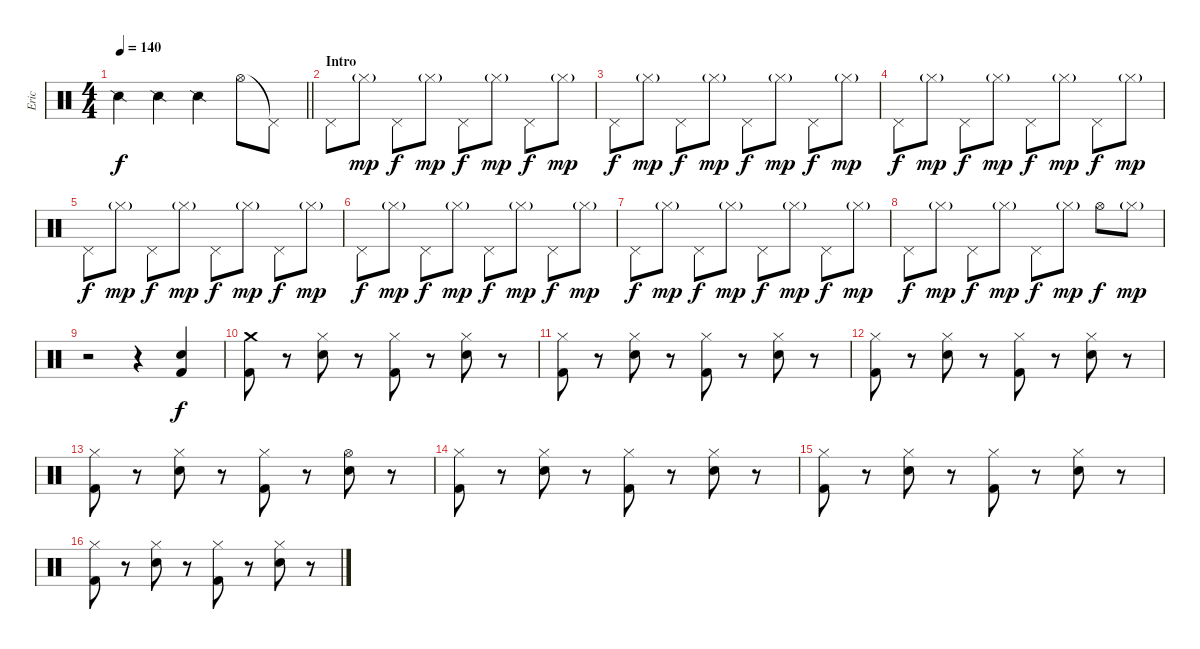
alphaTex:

\track ("Eric" "Eric") {instrument percussion}
\staff {score}
\articulation defaults
\ts (4 4)
\tempo 140
\clef neutral
\barLineRight lightlight
\ks c "Snare (side stick) 2".4{dy f} "Snare (side stick) 2".4 "Snare (side stick) 2".4 "Hi-Hat (open)".8 "Pedal Hi-Hat (hit)"{t}.8
|
\section ("" "Intro")
"Pedal Hi-Hat (hit)".8 "Hi-Hat (closed)"{g}.8{dy mp} "Pedal Hi-Hat (hit)".8{dy f} "Hi-Hat (closed)"{g}.8{dy mp} "Pedal Hi-Hat (hit)".8{dy f} "Hi-Hat (closed)"{g}.8{dy mp} "Pedal Hi-Hat (hit)".8{dy f} "Hi-Hat (closed)"{g}.8{dy mp} |
"Pedal Hi-Hat (hit)".8{dy f} "Hi-Hat (closed)"{g}.8{dy mp} "Pedal Hi-Hat (hit)".8{dy f} "Hi-Hat (closed)"{g}.8{dy mp} "Pedal Hi-Hat (hit)".8{dy f} "Hi-Hat (closed)"{g}.8{dy mp} "Pedal Hi-Hat (hit)".8{dy f} "Hi-Hat (closed)"{g}.8{dy mp} |
"Pedal Hi-Hat (hit)".8{dy f} "Hi-Hat (closed)"{g}.8{dy mp} "Pedal Hi-Hat (hit)".8{dy f} "Hi-Hat (closed)"{g}.8{dy mp} "Pedal Hi-Hat (hit)".8{dy f} "Hi-Hat (closed)"{g}.8{dy mp} "Pedal Hi-Hat (hit)".8{dy f} "Hi-Hat (closed)"{g}.8{dy mp} |
"Pedal Hi-Hat (hit)".8{dy f} "Hi-Hat (closed)"{g}.8{dy mp} "Pedal Hi-Hat (hit)".8{dy f} "Hi-Hat (closed)"{g}.8{dy mp} "Pedal Hi-Hat (hit)".8{dy f} "Hi-Hat (closed)"{g}.8{dy mp} "Pedal Hi-Hat (hit)".8{dy f} "Hi-Hat (closed)"{g}.8{dy mp} |
"Pedal Hi-Hat (hit)".8{dy f} "Hi-Hat (closed)"{g}.8{dy mp} "Pedal Hi-Hat (hit)".8{dy f} "Hi-Hat (closed)"{g}.8{dy mp} "Pedal Hi-Hat (hit)".8{dy f} "Hi-Hat (closed)"{g}.8{dy mp} "Pedal Hi-Hat (hit)".8{dy f} "Hi-Hat (closed)"{g}.8{dy mp} |
"Pedal Hi-Hat (hit)".8{dy f} "Hi-Hat (closed)"{g}.8{dy mp} "Pedal Hi-Hat (hit)".8{dy f} "Hi-Hat (closed)"{g}.8{dy mp} "Pedal Hi-Hat (hit)".8{dy f} "Hi-Hat (closed)"{g}.8{dy mp} "Pedal Hi-Hat (hit)".8{dy f} "Hi-Hat (closed)"{g}.8{dy mp} |
"Pedal Hi-Hat (hit)".8{dy f} "Hi-Hat (closed)"{g}.8{dy mp} "Pedal Hi-Hat (hit)".8{dy f} "Hi-Hat (closed)"{g}.8{dy mp} "Pedal Hi-Hat (hit)".8{dy f} "Hi-Hat (closed)"{g}.8{dy mp} "Hi-Hat (open)".8{dy f} "Hi-Hat (closed)"{g}.8{dy mp} |
r.2 r.4 ("Electric Snare (hit)" "Kick (hit) 2").4{dy f} |
("Crash medium (hit)" "Kick (hit) 2").8 r.8 ("Hi-Hat (closed)" "Electric Snare (hit)").8 r.8 ("Hi-Hat (closed)" "Kick (hit) 2").8 r.8 ("Hi-Hat (closed)" "Electric Snare (hit)").8 r.8 |
("Hi-Hat (closed)" "Kick (hit) 2").8 r.8 ("Hi-Hat (closed)" "Electric Snare (hit)").8 r.8 ("Hi-Hat (closed)" "Kick (hit) 2").8 r.8 ("Hi-Hat (closed)" "Electric Snare (hit)").8 r.8 |
("Hi-Hat (closed)" "Kick (hit) 2").8 r.8 ("Hi-Hat (closed)" "Electric Snare (hit)").8 r.8 ("Hi-Hat (closed)" "Kick (hit) 2").8 r.8 ("Hi-Hat (closed)" "Electric Snare (hit)").8 r.8 |
("Hi-Hat (closed)" "Kick (hit) 2").8 r.8 ("Hi-Hat (closed)" "Electric Snare (hit)").8 r.8 ("Hi-Hat (closed)" "Kick (hit) 2").8 r.8 ("Hi-Hat (open)" "Electric Snare (hit)").8 r.8 |
("Hi-Hat (closed)" "Kick (hit) 2").8 r.8 ("Hi-Hat (closed)" "Electric Snare (hit)").8 r.8 ("Hi-Hat (closed)" "Kick (hit) 2").8 r.8 ("Hi-Hat (closed)" "Electric Snare (hit)").8 r.8 |
("Hi-Hat (closed)" "Kick (hit) 2").8 r.8 ("Hi-Hat (closed)" "Electric Snare (hit)").8 r.8 ("Hi-Hat (closed)" "Kick (hit) 2").8 r.8 ("Hi-Hat (closed)" "Electric Snare (hit)").8 r.8 |
("Hi-Hat (closed)" "Kick (hit) 2").8 r.8 ("Hi-Hat (closed)" "Electric Snare (hit)").8 r.8 ("Hi-Hat (closed)" "Kick (hit) 2").8 r.8 ("Hi-Hat (closed)" "Electric Snare (hit)").8 r.8
